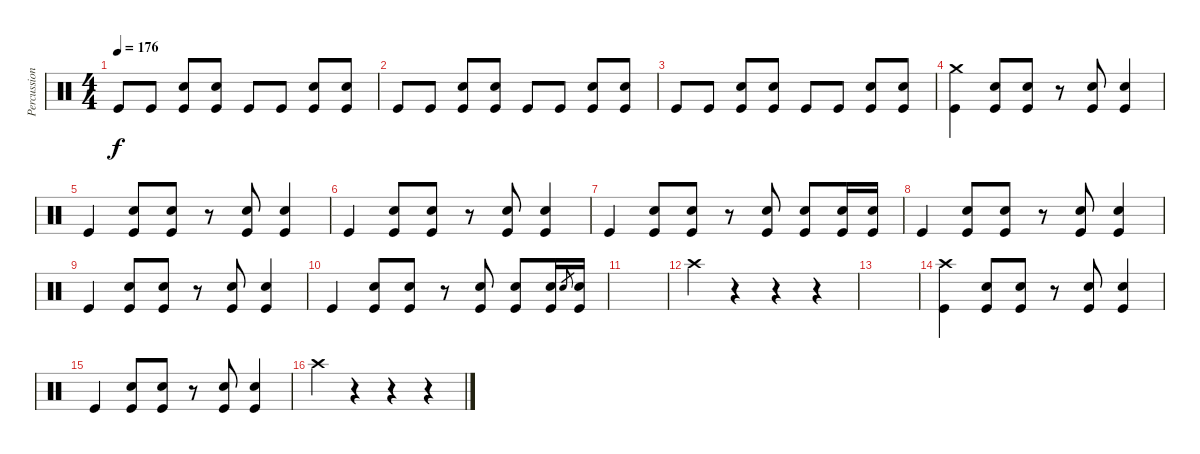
\track ("Percussion" "Percussion") {instrument percussion}
\staff {score}
\articulation defaults
\ts (4 4)
\tempo 176
\clef neutral
\ks c "Kick (hit)".8{dy f} "Kick (hit)".8
("Kick (hit)" "Snare (hit) 2").8 ("Kick (hit)" "Snare (hit) 2").8 "Kick (hit)".8 "Kick (hit)".8 ("Kick (hit)" "Snare (hit) 2").8 ("Kick (hit)" "Snare (hit) 2").8 |
"Kick (hit)".8 "Kick (hit)".8 ("Kick (hit)" "Snare (hit) 2").8 ("Kick (hit)" "Snare (hit) 2").8 "Kick (hit)".8 "Kick (hit)".8 ("Kick (hit)" "Snare (hit) 2").8 ("Kick (hit)" "Snare (hit) 2").8 |
"Kick (hit)".8 "Kick (hit)".8 ("Kick (hit)" "Snare (hit) 2").8 ("Kick (hit)" "Snare (hit) 2").8 "Kick (hit)".8 "Kick (hit)".8 ("Kick (hit)" "Snare (hit) 2").8 ("Kick (hit)" "Snare (hit) 2").8 |
("Crash medium (hit)" "Kick (hit)").4 ("Snare (hit) 2" "Kick (hit)").8 ("Snare (hit) 2" "Kick (hit)").8 r.8 ("Snare (hit) 2" "Kick (hit)").8 ("Snare (hit) 2" "Kick (hit)").4 |
"Kick (hit)".4 ("Snare (hit) 2" "Kick (hit)").8 ("Snare (hit) 2" "Kick (hit)").8 r.8 ("Snare (hit) 2" "Kick (hit)").8 ("Snare (hit) 2" "Kick (hit)").4 |
"Kick (hit)".4 ("Snare (hit) 2" "Kick (hit)").8 ("Snare (hit) 2" "Kick (hit)").8 r.8 ("Snare (hit) 2" "Kick (hit)").8 ("Snare (hit) 2" "Kick (hit)").4 |
"Kick (hit)".4 ("Snare (hit) 2" "Kick (hit)").8 ("Snare (hit) 2" "Kick (hit)").8 r.8 ("Snare (hit) 2" "Kick (hit)").8 ("Snare (hit) 2" "Kick (hit)").8 ("Snare (hit) 2" "Kick (hit)").16 ("Snare (hit) 2" "Kick (hit)").16 |
"Kick (hit)".4 ("Snare (hit) 2" "Kick (hit)").8 ("Snare (hit) 2" "Kick (hit)").8 r.8 ("Snare (hit) 2" "Kick (hit)").8 ("Snare (hit) 2" "Kick (hit)").4 |
"Kick (hit)".4 ("Snare (hit) 2" "Kick (hit)").8 ("Snare (hit) 2" "Kick (hit)").8 r.8 ("Snare (hit) 2" "Kick (hit)").8 ("Snare (hit) 2" "Kick (hit)").4 |
"Kick (hit)".4 ("Snare (hit) 2" "Kick (hit)").8 ("Snare (hit) 2" "Kick (hit)").8 r.8 ("Snare (hit) 2" "Kick (hit)").8 ("Snare (hit) 2" "Kick (hit)").8 ("Snare (hit) 2" "Kick (hit)").16 "Snare (hit) 2".8{gr} ("Snare (hit) 2" "Kick (hit)").16 |
|
"Crash high (hit)".4 r.4 r.4 r.4 |
|
("Crash high (hit)" "Kick (hit)").4 ("Snare (hit) 2" "Kick (hit)").8 ("Snare (hit) 2" "Kick (hit)").8 r.8 ("Snare (hit) 2" "Kick (hit)").8 ("Snare (hit) 2" "Kick (hit)").4 |
"Kick (hit)".4 ("Snare (hit) 2" "Kick (hit)").8 ("Snare (hit) 2" "Kick (hit)").8 r.8 ("Snare (hit) 2" "Kick (hit)").8 ("Snare (hit) 2" "Kick (hit)").4 |
"Crash high (hit)".4 r.4 r.4 r.4
